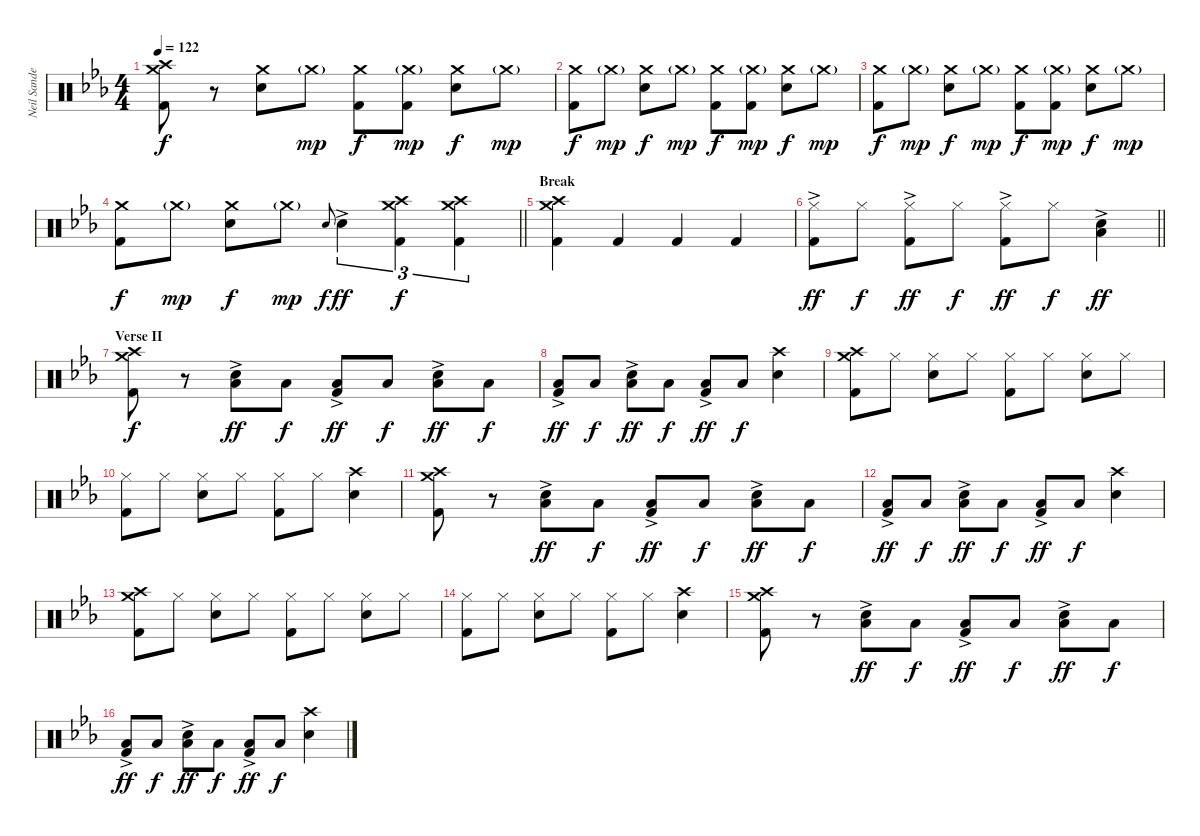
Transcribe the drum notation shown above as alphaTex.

\track ("Neil Sanderson" "Neil Sande") {instrument percussion}
\staff {score}
\articulation defaults
\ts (4 4)
\tempo 122
\clef neutral
\ks cminor
("Crash medium (hit)" "Crash high (hit)" "Kick (hit) 2").8{dy f} r.8 ("Crash medium (hit)" "Electric Snare (hit)").8 "Crash medium (hit)"{g}.8{dy mp} ("Crash medium (hit)" "Kick (hit) 2").8{dy f} ("Crash medium (hit)"{g} "Kick (hit) 2").8{dy mp} ("Crash medium (hit)" "Electric Snare (hit)").8{dy f} "Crash medium (hit)"{g}.8{dy mp} |
("Crash medium (hit)" "Kick (hit) 2").8{dy f} "Crash medium (hit)"{g}.8{dy mp} ("Crash medium (hit)" "Electric Snare (hit)").8{dy f} "Crash medium (hit)"{g}.8{dy mp} ("Crash medium (hit)" "Kick (hit) 2").8{dy f} ("Crash medium (hit)"{g} "Kick (hit) 2").8{dy mp} ("Crash medium (hit)" "Electric Snare (hit)").8{dy f} "Crash medium (hit)"{g}.8{dy mp} |
("Crash medium (hit)" "Kick (hit) 2").8{dy f} "Crash medium (hit)"{g}.8{dy mp} ("Crash medium (hit)" "Electric Snare (hit)").8{dy f} "Crash medium (hit)"{g}.8{dy mp} ("Crash medium (hit)" "Kick (hit) 2").8{dy f} ("Crash medium (hit)"{g} "Kick (hit) 2").8{dy mp} ("Crash medium (hit)" "Electric Snare (hit)").8{dy f} "Crash medium (hit)"{g}.8{dy mp} |
\barLineRight lightlight
("Crash medium (hit)" "Kick (hit) 2").8{dy f} "Crash medium (hit)"{g}.8{dy mp} ("Crash medium (hit)" "Electric Snare (hit)").8{dy f} "Crash medium (hit)"{g}.8{dy mp} "Electric Snare (hit)".8{gr onbeat dy f} "Electric Snare (hit)"{ac}.4{tu (3 2) dy ff} ("Crash medium (hit)" "Crash high (hit)" "Kick (hit) 2").4{tu (3 2) dy f} ("Crash medium (hit)" "Crash high (hit)" "Kick (hit) 2").4{tu (3 2)} |
\section ("" "Break")
("Crash medium (hit)" "Crash high (hit)" "Kick (hit) 2").4 "Kick (hit) 2".4 "Kick (hit) 2".4 "Kick (hit) 2".4 |
\barLineRight lightlight
("Hi-Hat (closed)"{ac} "Kick (hit) 2").8{dy ff} "Hi-Hat (closed)".8{dy f} ("Hi-Hat (closed)"{ac} "Kick (hit) 2").8{dy ff} "Hi-Hat (closed)".8{dy f} ("Hi-Hat (closed)"{ac} "Kick (hit) 2").8{dy ff} "Hi-Hat (closed)".8{dy f} ("Electric Snare (hit)"{ac} "Low Floor Tom (hit)"{ac}).4{dy ff} |
\section ("" "Verse II")
("Crash medium (hit)" "Crash high (hit)" "Kick (hit) 2").8{dy f} r.8 ("Electric Snare (hit)" "Low Floor Tom (hit)"{ac}).8{dy ff} "Low Floor Tom (hit)".8{dy f} ("Low Floor Tom (hit)"{ac} "Kick (hit) 2").8{dy ff} "Low Floor Tom (hit)".8{dy f} ("Electric Snare (hit)" "Low Floor Tom (hit)"{ac}).8{dy ff} "Low Floor Tom (hit)".8{dy f} |
("Low Floor Tom (hit)"{ac} "Kick (hit) 2").8{dy ff} "Low Floor Tom (hit)".8{dy f} ("Electric Snare (hit)" "Low Floor Tom (hit)"{ac}).8{dy ff} "Low Floor Tom (hit)".8{dy f} ("Low Floor Tom (hit)"{ac} "Kick (hit) 2").8{dy ff} "Low Floor Tom (hit)".8{dy f} ("Crash high (hit)" "Electric Snare (hit)").4 |
("Crash medium (hit)" "Crash high (hit)" "Kick (hit) 2").8 "Hi-Hat (closed)".8 ("Hi-Hat (closed)" "Electric Snare (hit)").8 "Hi-Hat (closed)".8 ("Hi-Hat (closed)" "Kick (hit) 2").8 "Hi-Hat (closed)".8 ("Hi-Hat (closed)" "Electric Snare (hit)").8 "Hi-Hat (closed)".8 |
("Hi-Hat (closed)" "Kick (hit) 2").8 "Hi-Hat (closed)".8 ("Hi-Hat (closed)" "Electric Snare (hit)").8 "Hi-Hat (closed)".8 ("Hi-Hat (closed)" "Kick (hit) 2").8 "Hi-Hat (closed)".8 ("Crash high (hit)" "Electric Snare (hit)").4 |
("Crash medium (hit)" "Crash high (hit)" "Kick (hit) 2").8 r.8 ("Electric Snare (hit)" "Low Floor Tom (hit)"{ac}).8{dy ff} "Low Floor Tom (hit)".8{dy f} ("Low Floor Tom (hit)"{ac} "Kick (hit) 2").8{dy ff} "Low Floor Tom (hit)".8{dy f} ("Electric Snare (hit)" "Low Floor Tom (hit)"{ac}).8{dy ff} "Low Floor Tom (hit)".8{dy f} |
("Low Floor Tom (hit)"{ac} "Kick (hit) 2").8{dy ff} "Low Floor Tom (hit)".8{dy f} ("Electric Snare (hit)" "Low Floor Tom (hit)"{ac}).8{dy ff} "Low Floor Tom (hit)".8{dy f} ("Low Floor Tom (hit)"{ac} "Kick (hit) 2").8{dy ff} "Low Floor Tom (hit)".8{dy f} ("Crash high (hit)" "Electric Snare (hit)").4 |
("Crash medium (hit)" "Crash high (hit)" "Kick (hit) 2").8 "Hi-Hat (closed)".8 ("Hi-Hat (closed)" "Electric Snare (hit)").8 "Hi-Hat (closed)".8 ("Hi-Hat (closed)" "Kick (hit) 2").8 "Hi-Hat (closed)".8 ("Hi-Hat (closed)" "Electric Snare (hit)").8 "Hi-Hat (closed)".8 |
("Hi-Hat (closed)" "Kick (hit) 2").8 "Hi-Hat (closed)".8 ("Hi-Hat (closed)" "Electric Snare (hit)").8 "Hi-Hat (closed)".8 ("Hi-Hat (closed)" "Kick (hit) 2").8 "Hi-Hat (closed)".8 ("Crash high (hit)" "Electric Snare (hit)").4 |
("Crash medium (hit)" "Crash high (hit)" "Kick (hit) 2").8 r.8 ("Electric Snare (hit)" "Low Floor Tom (hit)"{ac}).8{dy ff} "Low Floor Tom (hit)".8{dy f} ("Low Floor Tom (hit)"{ac} "Kick (hit) 2").8{dy ff} "Low Floor Tom (hit)".8{dy f} ("Electric Snare (hit)" "Low Floor Tom (hit)"{ac}).8{dy ff} "Low Floor Tom (hit)".8{dy f} |
("Low Floor Tom (hit)"{ac} "Kick (hit) 2").8{dy ff} "Low Floor Tom (hit)".8{dy f} ("Electric Snare (hit)" "Low Floor Tom (hit)"{ac}).8{dy ff} "Low Floor Tom (hit)".8{dy f} ("Low Floor Tom (hit)"{ac} "Kick (hit) 2").8{dy ff} "Low Floor Tom (hit)".8{dy f} ("Crash high (hit)" "Electric Snare (hit)").4
